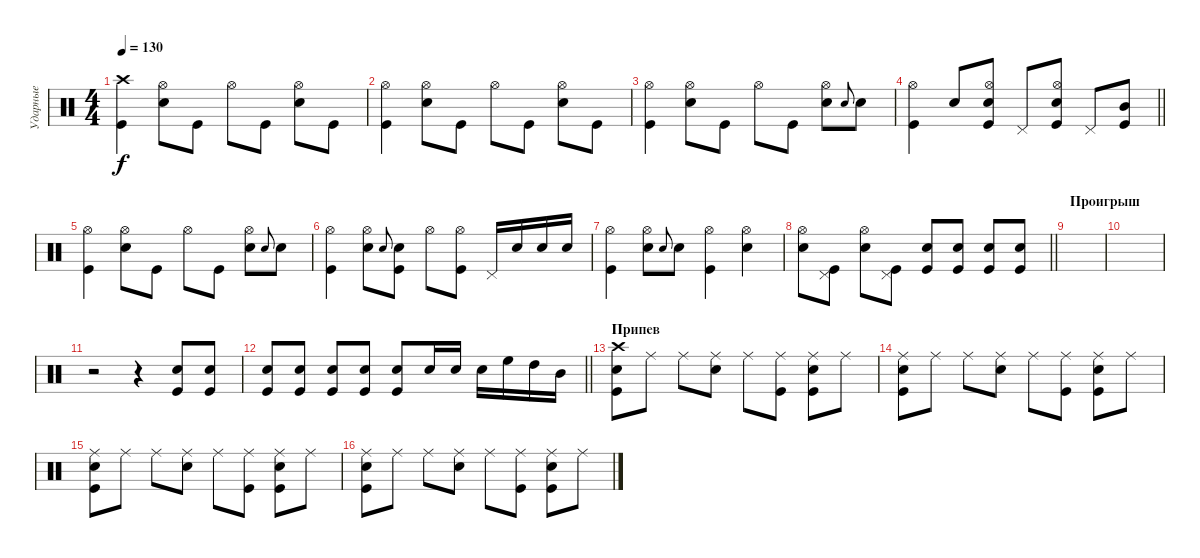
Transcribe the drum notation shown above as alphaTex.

\track ("Ударные" "Ударные") {instrument percussion}
\staff {score}
\articulation defaults
\ts (4 4)
\tempo 130
\clef neutral
\ks c
("Crash high (hit)" "Kick (hit)").4{dy f} ("Hi-Hat (open)" "Snare (hit) 2").8 "Kick (hit)".8 "Hi-Hat (open)".8 "Kick (hit)".8 ("Hi-Hat (open)" "Snare (hit) 2").8 "Kick (hit)".8 |
("Hi-Hat (open)" "Kick (hit)").4 ("Hi-Hat (open)" "Snare (hit) 2").8 "Kick (hit)".8 "Hi-Hat (open)".8 "Kick (hit)".8 ("Hi-Hat (open)" "Snare (hit) 2").8 "Kick (hit)".8 |
("Hi-Hat (open)" "Kick (hit)").4 ("Hi-Hat (open)" "Snare (hit) 2").8 "Kick (hit)".8 "Hi-Hat (open)".8 "Kick (hit)".8 ("Hi-Hat (open)" "Snare (hit) 2").8 "Snare (hit) 2".8{gr onbeat} "Snare (hit) 2".8 |
\barLineRight lightlight
("Hi-Hat (open)" "Kick (hit)").4 "Snare (hit) 2".8 ("Hi-Hat (open)" "Snare (hit) 2" "Kick (hit)").8 "Pedal Hi-Hat (hit)".8 ("Hi-Hat (open)" "Snare (hit) 2" "Kick (hit)").8 "Pedal Hi-Hat (hit)".8 ("Mid Tom (hit)" "Kick (hit)").8 |
("Hi-Hat (open)" "Kick (hit)").4 ("Hi-Hat (open)" "Snare (hit) 2").8 "Kick (hit)".8 "Hi-Hat (open)".8 "Kick (hit)".8 ("Hi-Hat (open)" "Snare (hit) 2").8 "Snare (hit) 2".8{gr onbeat} "Snare (hit) 2".8 |
("Hi-Hat (open)" "Kick (hit)").4 ("Hi-Hat (open)" "Snare (hit) 2").8 "Snare (hit) 2".8{gr onbeat} ("Snare (hit) 2" "Kick (hit)").8 "Hi-Hat (open)".8 ("Hi-Hat (open)" "Kick (hit)").8 "Pedal Hi-Hat (hit)".16 "Snare (hit) 2".16 "Snare (hit) 2".16 "Snare (hit) 2".16 |
("Hi-Hat (open)" "Kick (hit)").4 ("Hi-Hat (open)" "Snare (hit) 2").8 "Snare (hit) 2".8{gr onbeat} "Snare (hit) 2".8 ("Hi-Hat (open)" "Kick (hit)").4 ("Hi-Hat (open)" "Snare (hit) 2").4 |
\barLineRight lightlight
("Hi-Hat (open)" "Snare (hit) 2").8 ("Pedal Hi-Hat (hit)" "Kick (hit)").8 ("Hi-Hat (open)" "Snare (hit) 2").8 ("Pedal Hi-Hat (hit)" "Kick (hit)").8 ("Snare (hit) 2" "Kick (hit)").8 ("Snare (hit) 2" "Kick (hit)").8 ("Snare (hit) 2" "Kick (hit)").8 ("Snare (hit) 2" "Kick (hit)").8 |
\section ("" "Проигрыш")
|
|
r.2{volume 9} r.4 ("Snare (hit) 2" "Kick (hit)").8{volume 16} ("Snare (hit) 2" "Kick (hit)").8 |
\barLineRight lightlight
("Snare (hit) 2" "Kick (hit)").8 ("Snare (hit) 2" "Kick (hit)").8 ("Snare (hit) 2" "Kick (hit)").8 ("Snare (hit) 2" "Kick (hit)").8 ("Snare (hit) 2" "Kick (hit)").8 "Snare (hit) 2".16 "Snare (hit) 2".16 "Snare (hit) 2".16 "High Floor Tom (hit)".16 "High Tom (hit)".16 "Mid Tom (hit)".16 |
\section ("" "Припев")
("Crash high (hit)" "Snare (hit) 2" "Kick (hit)").8 "Ride (middle)".8 "Ride (middle)".8 ("Ride (middle)" "Snare (hit) 2").8 "Ride (middle)".8 ("Ride (middle)" "Kick (hit)").8 ("Ride (middle)" "Snare (hit) 2" "Kick (hit)").8 "Ride (middle)".8 |
("Ride (middle)" "Snare (hit) 2" "Kick (hit)").8 "Ride (middle)".8 "Ride (middle)".8 ("Ride (middle)" "Snare (hit) 2").8 "Ride (middle)".8 ("Ride (middle)" "Kick (hit)").8 ("Ride (middle)" "Snare (hit) 2" "Kick (hit)").8 "Ride (middle)".8 |
("Ride (middle)" "Snare (hit) 2" "Kick (hit)").8 "Ride (middle)".8 "Ride (middle)".8 ("Ride (middle)" "Snare (hit) 2").8 "Ride (middle)".8 ("Ride (middle)" "Kick (hit)").8 ("Ride (middle)" "Snare (hit) 2" "Kick (hit)").8 "Ride (middle)".8 |
("Ride (middle)" "Snare (hit) 2" "Kick (hit)").8 "Ride (middle)".8 "Ride (middle)".8 ("Ride (middle)" "Snare (hit) 2").8 "Ride (middle)".8 ("Ride (middle)" "Kick (hit)").8 ("Ride (middle)" "Snare (hit) 2" "Kick (hit)").8 "Ride (middle)".8
